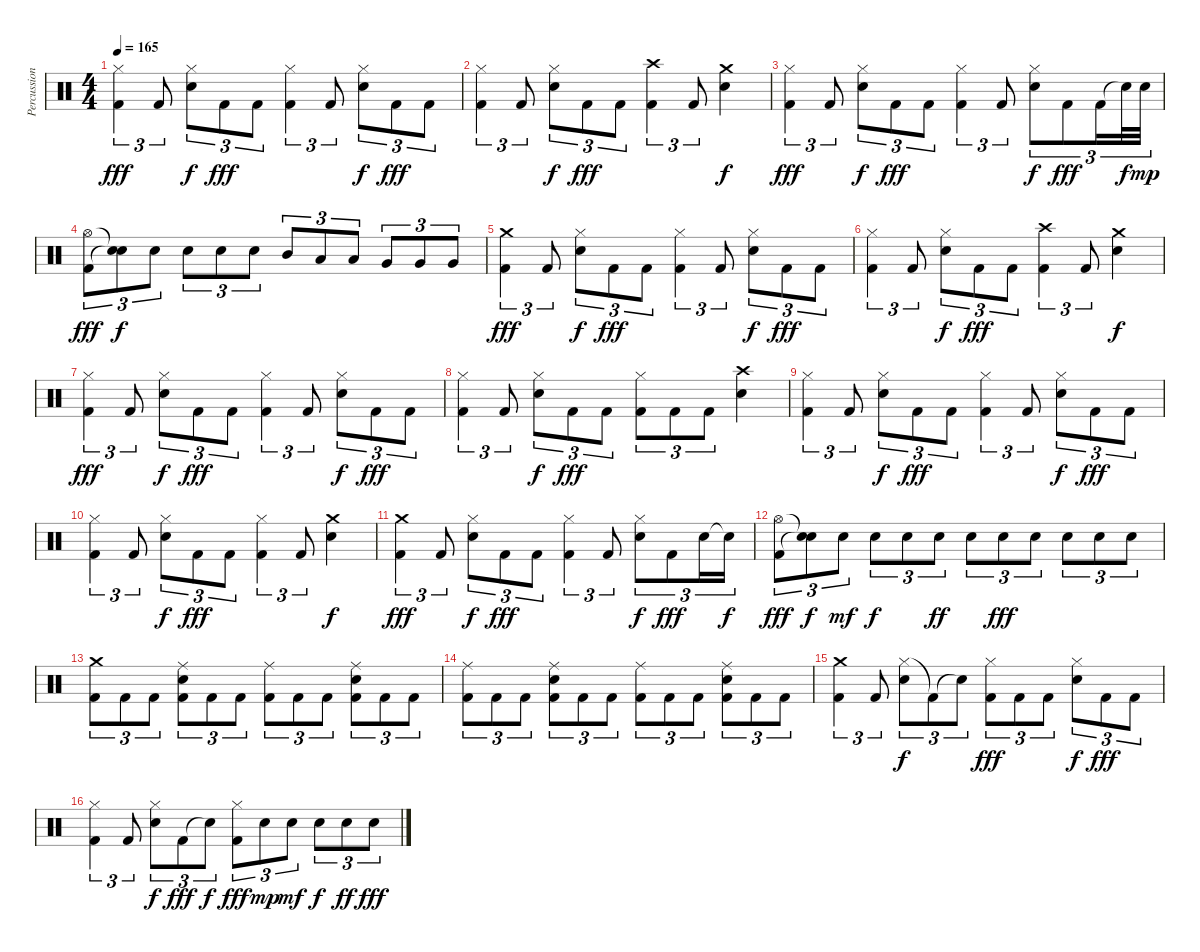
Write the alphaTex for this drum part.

\track ("Percussion" "Percussion") {instrument percussion}
\staff {score}
\articulation defaults
\ts (4 4)
\tempo 165
\clef neutral
\ks c
("Hi-Hat (closed)" "Kick (hit) 2").4{tu (3 2) dy fff} "Kick (hit) 2".8{tu (3 2)} ("Hi-Hat (closed)" "Electric Snare (hit)").8{tu (3 2) dy f} "Kick (hit) 2".8{tu (3 2) dy fff} "Kick (hit) 2".8{tu (3 2)} ("Hi-Hat (closed)" "Kick (hit) 2").4{tu (3 2)} "Kick (hit) 2".8{tu (3 2)} ("Hi-Hat (closed)" "Electric Snare (hit)").8{tu (3 2) dy f} "Kick (hit) 2".8{tu (3 2) dy fff} "Kick (hit) 2".8{tu (3 2)} |
("Hi-Hat (closed)" "Kick (hit) 2").4{tu (3 2)} "Kick (hit) 2".8{tu (3 2)} ("Hi-Hat (closed)" "Electric Snare (hit)").8{tu (3 2) dy f} "Kick (hit) 2".8{tu (3 2) dy fff} "Kick (hit) 2".8{tu (3 2)} ("Crash high (hit)" "Kick (hit) 2").4{tu (3 2)} "Kick (hit) 2".8{tu (3 2)} ("Crash medium (hit)" "Electric Snare (hit)").4{dy f} |
("Hi-Hat (closed)" "Kick (hit) 2").4{tu (3 2) dy fff} "Kick (hit) 2".8{tu (3 2)} ("Hi-Hat (closed)" "Electric Snare (hit)").8{tu (3 2) dy f} "Kick (hit) 2".8{tu (3 2) dy fff} "Kick (hit) 2".8{tu (3 2)} ("Hi-Hat (closed)" "Kick (hit) 2").4{tu (3 2)} "Kick (hit) 2".8{tu (3 2)} ("Hi-Hat (closed)" "Electric Snare (hit)").8{tu (3 2) dy f} "Kick (hit) 2".8{tu (3 2) dy fff} "Kick (hit) 2".16{tu (3 2)} "Snare (hit)"{t}.32{tu (3 2) dy f} "Electric Snare (hit)".32{tu (3 2) dy mp} |
("Hi-Hat (open)" "Kick (hit) 2").8{tu (3 2) dy fff} ("Snare (hit)"{t} "Snare (hit)"{t}).8{tu (3 2) dy f} "Electric Snare (hit)".8{tu (3 2)} "Electric Snare (hit)".8{tu (3 2)} "Electric Snare (hit)".8{tu (3 2)} "Electric Snare (hit)".8{tu (3 2)} "Mid Tom (hit)".8{tu (3 2)} "Low Tom (hit)".8{tu (3 2)} "Low Tom (hit)".8{tu (3 2)} "Very Low Tom (hit)".8{tu (3 2)} "Very Low Tom (hit)".8{tu (3 2)} "Very Low Tom (hit)".8{tu (3 2)} |
("Crash medium (hit)" "Kick (hit) 2").4{tu (3 2) dy fff} "Kick (hit) 2".8{tu (3 2)} ("Hi-Hat (closed)" "Electric Snare (hit)").8{tu (3 2) dy f} "Kick (hit) 2".8{tu (3 2) dy fff} "Kick (hit) 2".8{tu (3 2)} ("Hi-Hat (closed)" "Kick (hit) 2").4{tu (3 2)} "Kick (hit) 2".8{tu (3 2)} ("Hi-Hat (closed)" "Electric Snare (hit)").8{tu (3 2) dy f} "Kick (hit) 2".8{tu (3 2) dy fff} "Kick (hit) 2".8{tu (3 2)} |
("Hi-Hat (closed)" "Kick (hit) 2").4{tu (3 2)} "Kick (hit) 2".8{tu (3 2)} ("Hi-Hat (closed)" "Electric Snare (hit)").8{tu (3 2) dy f} "Kick (hit) 2".8{tu (3 2) dy fff} "Kick (hit) 2".8{tu (3 2)} ("Crash high (hit)" "Kick (hit) 2").4{tu (3 2)} "Kick (hit) 2".8{tu (3 2)} ("Crash medium (hit)" "Electric Snare (hit)").4{dy f} |
("Hi-Hat (closed)" "Kick (hit) 2").4{tu (3 2) dy fff} "Kick (hit) 2".8{tu (3 2)} ("Hi-Hat (closed)" "Electric Snare (hit)").8{tu (3 2) dy f} "Kick (hit) 2".8{tu (3 2) dy fff} "Kick (hit) 2".8{tu (3 2)} ("Hi-Hat (closed)" "Kick (hit) 2").4{tu (3 2)} "Kick (hit) 2".8{tu (3 2)} ("Hi-Hat (closed)" "Electric Snare (hit)").8{tu (3 2) dy f} "Kick (hit) 2".8{tu (3 2) dy fff} "Kick (hit) 2".8{tu (3 2)} |
("Hi-Hat (closed)" "Kick (hit) 2").4{tu (3 2)} "Kick (hit) 2".8{tu (3 2)} ("Hi-Hat (closed)" "Electric Snare (hit)").8{tu (3 2) dy f} "Kick (hit) 2".8{tu (3 2) dy fff} "Kick (hit) 2".8{tu (3 2)} ("Hi-Hat (closed)" "Kick (hit) 2").8{tu (3 2)} "Kick (hit) 2".8{tu (3 2)} "Kick (hit) 2".8{tu (3 2)} ("Crash high (hit)" "Electric Snare (hit)").4 |
("Hi-Hat (closed)" "Kick (hit) 2").4{tu (3 2)} "Kick (hit) 2".8{tu (3 2)} ("Hi-Hat (closed)" "Electric Snare (hit)").8{tu (3 2) dy f} "Kick (hit) 2".8{tu (3 2) dy fff} "Kick (hit) 2".8{tu (3 2)} ("Hi-Hat (closed)" "Kick (hit) 2").4{tu (3 2)} "Kick (hit) 2".8{tu (3 2)} ("Hi-Hat (closed)" "Electric Snare (hit)").8{tu (3 2) dy f} "Kick (hit) 2".8{tu (3 2) dy fff} "Kick (hit) 2".8{tu (3 2)} |
("Hi-Hat (closed)" "Kick (hit) 2").4{tu (3 2)} "Kick (hit) 2".8{tu (3 2)} ("Hi-Hat (closed)" "Electric Snare (hit)").8{tu (3 2) dy f} "Kick (hit) 2".8{tu (3 2) dy fff} "Kick (hit) 2".8{tu (3 2)} ("Hi-Hat (closed)" "Kick (hit) 2").4{tu (3 2)} "Kick (hit) 2".8{tu (3 2)} ("Crash medium (hit)" "Electric Snare (hit)").4{dy f} |
("Crash medium (hit)" "Kick (hit) 2").4{tu (3 2) dy fff} "Kick (hit) 2".8{tu (3 2)} ("Hi-Hat (closed)" "Electric Snare (hit)").8{tu (3 2) dy f} "Kick (hit) 2".8{tu (3 2) dy fff} "Kick (hit) 2".8{tu (3 2)} ("Hi-Hat (closed)" "Kick (hit) 2").4{tu (3 2)} "Kick (hit) 2".8{tu (3 2)} ("Hi-Hat (closed)" "Electric Snare (hit)").8{tu (3 2) dy f} "Kick (hit) 2".8{tu (3 2) dy fff} "Electric Snare (hit)".16{tu (3 2)} "Snare (hit)"{t}.16{tu (3 2) dy f} |
("Hi-Hat (open)" "Kick (hit) 2").8{tu (3 2) dy fff} ("Snare (hit)"{t} "Snare (hit)"{t}).8{tu (3 2) dy f} "Electric Snare (hit)".8{tu (3 2) dy mf} "Electric Snare (hit)".8{tu (3 2) dy f} "Electric Snare (hit)".8{tu (3 2)} "Electric Snare (hit)".8{tu (3 2) dy ff} "Electric Snare (hit)".8{tu (3 2)} "Electric Snare (hit)".8{tu (3 2) dy fff} "Electric Snare (hit)".8{tu (3 2)} "Electric Snare (hit)".8{tu (3 2)} "Electric Snare (hit)".8{tu (3 2)} "Electric Snare (hit)".8{tu (3 2)} |
("Crash medium (hit)" "Kick (hit) 2").8{tu (3 2)} "Kick (hit) 2".8{tu (3 2)} "Kick (hit) 2".8{tu (3 2)} ("Ride (middle)" "Electric Snare (hit)" "Kick (hit) 2").8{tu (3 2)} "Kick (hit) 2".8{tu (3 2)} "Kick (hit) 2".8{tu (3 2)} ("Ride (middle)" "Kick (hit) 2").8{tu (3 2)} "Kick (hit) 2".8{tu (3 2)} "Kick (hit) 2".8{tu (3 2)} ("Ride (middle)" "Electric Snare (hit)" "Kick (hit) 2").8{tu (3 2)} "Kick (hit) 2".8{tu (3 2)} "Kick (hit) 2".8{tu (3 2)} |
("Ride (middle)" "Kick (hit) 2").8{tu (3 2)} "Kick (hit) 2".8{tu (3 2)} "Kick (hit) 2".8{tu (3 2)} ("Ride (middle)" "Electric Snare (hit)" "Kick (hit) 2").8{tu (3 2)} "Kick (hit) 2".8{tu (3 2)} "Kick (hit) 2".8{tu (3 2)} ("Ride (middle)" "Kick (hit) 2").8{tu (3 2)} "Kick (hit) 2".8{tu (3 2)} "Kick (hit) 2".8{tu (3 2)} ("Ride (middle)" "Electric Snare (hit)" "Kick (hit) 2").8{tu (3 2)} "Kick (hit) 2".8{tu (3 2)} "Kick (hit) 2".8{tu (3 2)} |
("Crash medium (hit)" "Kick (hit) 2").4{tu (3 2)} "Kick (hit) 2".8{tu (3 2)} ("Hi-Hat (closed)" "Electric Snare (hit)").8{tu (3 2) dy f} "Kick (hit) 2"{t}.8{tu (3 2)} "Snare (hit)"{t}.8{tu (3 2)} ("Hi-Hat (closed)" "Kick (hit) 2").8{tu (3 2) dy fff} "Kick (hit) 2".8{tu (3 2)} "Kick (hit) 2".8{tu (3 2)} ("Hi-Hat (closed)" "Electric Snare (hit)").8{tu (3 2) dy f} "Kick (hit) 2".8{tu (3 2) dy fff} "Kick (hit) 2".8{tu (3 2)} |
("Hi-Hat (closed)" "Kick (hit) 2").4{tu (3 2)} "Kick (hit) 2".8{tu (3 2)} ("Hi-Hat (closed)" "Electric Snare (hit)").8{tu (3 2) dy f} "Kick (hit) 2".8{tu (3 2) dy fff} "Snare (hit)"{t}.8{tu (3 2) dy f} ("Hi-Hat (closed)" "Kick (hit) 2").8{tu (3 2) dy fff} "Electric Snare (hit)".8{tu (3 2) dy mp} "Electric Snare (hit)".8{tu (3 2) dy mf} "Electric Snare (hit)".8{tu (3 2) dy f} "Electric Snare (hit)".8{tu (3 2) dy ff} "Electric Snare (hit)".8{tu (3 2) dy fff}
